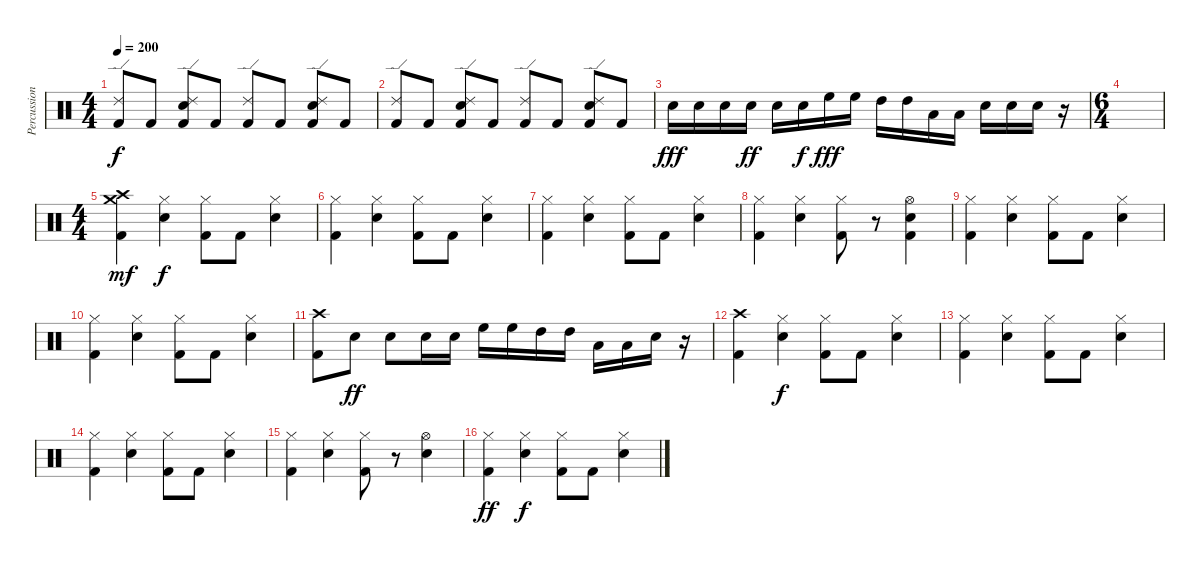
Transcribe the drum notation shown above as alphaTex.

\track ("Percussions 1" "Percussion") {instrument percussion}
\staff {score}
\articulation defaults
\ts (4 4)
\tempo 200
\clef neutral
\ks c
("Ride (edge) 2" "Kick (hit) 2").8{dy f} "Kick (hit) 2".8 ("Ride (edge) 2" "Snare (hit) 2" "Kick (hit) 2").8 "Kick (hit) 2".8 ("Ride (edge) 2" "Kick (hit) 2").8 "Kick (hit) 2".8 ("Ride (edge) 2" "Snare (hit) 2" "Kick (hit) 2").8 "Kick (hit) 2".8 |
("Ride (edge) 2" "Kick (hit) 2").8 "Kick (hit) 2".8 ("Ride (edge) 2" "Snare (hit) 2" "Kick (hit) 2").8 "Kick (hit) 2".8 ("Ride (edge) 2" "Kick (hit) 2").8 "Kick (hit) 2".8 ("Ride (edge) 2" "Snare (hit) 2" "Kick (hit) 2").8 "Kick (hit) 2".8 |
"Snare (hit) 2".16{dy fff} "Snare (hit) 2".16 "Snare (hit) 2".16 "Snare (hit) 2".16{dy ff} "Snare (hit) 2".16 "Snare (hit) 2".16{dy f} "High Floor Tom (hit)".16{dy fff} "High Floor Tom (hit)".16 "High Tom (hit)".16 "High Tom (hit)".16 "Low Tom (hit)".16 "Low Tom (hit)".16 "Snare (hit) 2".16 "Snare (hit) 2".16 "Snare (hit) 2".16 r.16 |
\ts (6 4)
|
\ts (4 4)
("Crash high (hit)" "Crash medium (hit)" "Kick (hit) 2").4{dy mf} ("Hi-Hat (closed)" "Snare (hit) 2").4{dy f} ("Hi-Hat (closed)" "Kick (hit) 2").8 "Kick (hit) 2".8 ("Hi-Hat (closed)" "Snare (hit) 2").4 |
("Hi-Hat (closed)" "Kick (hit) 2").4 ("Hi-Hat (closed)" "Snare (hit) 2").4 ("Hi-Hat (closed)" "Kick (hit) 2").8 "Kick (hit) 2".8 ("Hi-Hat (closed)" "Snare (hit) 2").4 |
("Hi-Hat (closed)" "Kick (hit) 2").4 ("Hi-Hat (closed)" "Snare (hit) 2").4 ("Hi-Hat (closed)" "Kick (hit) 2").8 "Kick (hit) 2".8 ("Hi-Hat (closed)" "Snare (hit) 2").4 |
("Hi-Hat (closed)" "Kick (hit) 2").4 ("Hi-Hat (closed)" "Snare (hit) 2").4 ("Hi-Hat (closed)" "Kick (hit) 2").8 r.8 ("Hi-Hat (open)" "Snare (hit) 2" "Kick (hit) 2").4 |
("Hi-Hat (closed)" "Kick (hit) 2").4 ("Hi-Hat (closed)" "Snare (hit) 2").4 ("Hi-Hat (closed)" "Kick (hit) 2").8 "Kick (hit) 2".8 ("Hi-Hat (closed)" "Snare (hit) 2").4 |
("Hi-Hat (closed)" "Kick (hit) 2").4 ("Hi-Hat (closed)" "Snare (hit) 2").4 ("Hi-Hat (closed)" "Kick (hit) 2").8 "Kick (hit) 2".8 ("Hi-Hat (closed)" "Snare (hit) 2").4 |
("Crash high (hit)" "Kick (hit) 2").8 "Snare (hit) 2".8{dy ff} "Snare (hit) 2".8 "Snare (hit) 2".16 "Snare (hit) 2".16 "High Floor Tom (hit)".16 "High Floor Tom (hit)".16 "High Tom (hit)".16 "High Tom (hit)".16 "Low Tom (hit)".16 "Low Tom (hit)".16 "Snare (hit) 2".16 r.16 |
("Crash high (hit)" "Kick (hit) 2").4 ("Hi-Hat (closed)" "Snare (hit) 2").4{dy f} ("Hi-Hat (closed)" "Kick (hit) 2").8 "Kick (hit) 2".8 ("Hi-Hat (closed)" "Snare (hit) 2").4 |
("Hi-Hat (closed)" "Kick (hit) 2").4 ("Hi-Hat (closed)" "Snare (hit) 2").4 ("Hi-Hat (closed)" "Kick (hit) 2").8 "Kick (hit) 2".8 ("Hi-Hat (closed)" "Snare (hit) 2").4 |
("Hi-Hat (closed)" "Kick (hit) 2").4 ("Hi-Hat (closed)" "Snare (hit) 2").4 ("Hi-Hat (closed)" "Kick (hit) 2").8 "Kick (hit) 2".8 ("Hi-Hat (closed)" "Snare (hit) 2").4 |
("Hi-Hat (closed)" "Kick (hit) 2").4 ("Hi-Hat (closed)" "Snare (hit) 2").4 ("Hi-Hat (closed)" "Kick (hit) 2").8 r.8 ("Hi-Hat (open)" "Snare (hit) 2").4 |
("Hi-Hat (closed)" "Kick (hit) 2").4{dy ff} ("Hi-Hat (closed)" "Snare (hit) 2").4{dy f} ("Hi-Hat (closed)" "Kick (hit) 2").8 "Kick (hit) 2".8 ("Hi-Hat (closed)" "Snare (hit) 2").4
